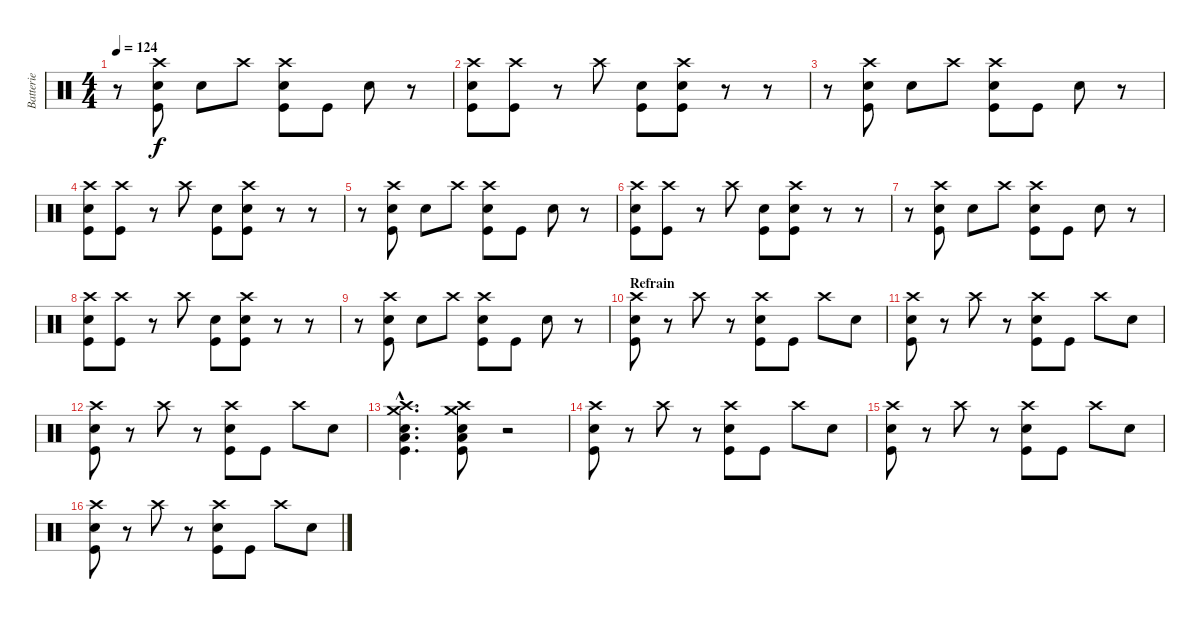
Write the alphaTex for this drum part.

\track ("Batterie" "Batterie") {instrument percussion}
\staff {score}
\articulation defaults
\ts (4 4)
\tempo 124
\clef neutral
\ks c
r.8{dy f} ("Crash high (hit)" "Snare (hit) 2" "Kick (hit)").8 "Snare (hit) 2".8 "Crash high (hit)".8 ("Crash high (hit)" "Snare (hit) 2" "Kick (hit)").8 "Kick (hit)".8 "Snare (hit) 2".8 r.8 |
("Crash high (hit)" "Snare (hit) 2" "Kick (hit)").8 ("Crash high (hit)" "Kick (hit)").8 r.8 "Crash high (hit)".8 ("Snare (hit) 2" "Kick (hit)").8 ("Crash high (hit)" "Snare (hit) 2" "Kick (hit)").8 r.8 r.8 |
r.8 ("Crash high (hit)" "Snare (hit) 2" "Kick (hit)").8 "Snare (hit) 2".8 "Crash high (hit)".8 ("Crash high (hit)" "Snare (hit) 2" "Kick (hit)").8 "Kick (hit)".8 "Snare (hit) 2".8 r.8 |
("Crash high (hit)" "Snare (hit) 2" "Kick (hit)").8 ("Crash high (hit)" "Kick (hit)").8 r.8 "Crash high (hit)".8 ("Snare (hit) 2" "Kick (hit)").8 ("Crash high (hit)" "Snare (hit) 2" "Kick (hit)").8 r.8 r.8 |
r.8 ("Crash high (hit)" "Snare (hit) 2" "Kick (hit)").8 "Snare (hit) 2".8 "Crash high (hit)".8 ("Crash high (hit)" "Snare (hit) 2" "Kick (hit)").8 "Kick (hit)".8 "Snare (hit) 2".8 r.8 |
("Crash high (hit)" "Snare (hit) 2" "Kick (hit)").8 ("Crash high (hit)" "Kick (hit)").8 r.8 "Crash high (hit)".8 ("Snare (hit) 2" "Kick (hit)").8 ("Crash high (hit)" "Snare (hit) 2" "Kick (hit)").8 r.8 r.8 |
r.8 ("Crash high (hit)" "Snare (hit) 2" "Kick (hit)").8 "Snare (hit) 2".8 "Crash high (hit)".8 ("Crash high (hit)" "Snare (hit) 2" "Kick (hit)").8 "Kick (hit)".8 "Snare (hit) 2".8 r.8 |
("Crash high (hit)" "Snare (hit) 2" "Kick (hit)").8 ("Crash high (hit)" "Kick (hit)").8 r.8 "Crash high (hit)".8 ("Snare (hit) 2" "Kick (hit)").8 ("Crash high (hit)" "Snare (hit) 2" "Kick (hit)").8 r.8 r.8 |
r.8 ("Crash high (hit)" "Snare (hit) 2" "Kick (hit)").8 "Snare (hit) 2".8 "Crash high (hit)".8 ("Crash high (hit)" "Snare (hit) 2" "Kick (hit)").8 "Kick (hit)".8 "Snare (hit) 2".8 r.8 |
\section ("" "Refrain")
("Crash high (hit)" "Snare (hit) 2" "Kick (hit)").8 r.8 "Crash high (hit)".8 r.8 ("Crash high (hit)" "Snare (hit) 2" "Kick (hit)").8 "Kick (hit)".8 "Crash high (hit)".8 "Snare (hit) 2".8 |
("Crash high (hit)" "Snare (hit) 2" "Kick (hit)").8 r.8 "Crash high (hit)".8 r.8 ("Crash high (hit)" "Snare (hit) 2" "Kick (hit)").8 "Kick (hit)".8 "Crash high (hit)".8 "Snare (hit) 2".8 |
("Crash high (hit)" "Snare (hit) 2" "Kick (hit)").8 r.8 "Crash high (hit)".8 r.8 ("Crash high (hit)" "Snare (hit) 2" "Kick (hit)").8 "Kick (hit)".8 "Crash high (hit)".8 "Snare (hit) 2".8 |
("Crash high (hit)"{hac} "Crash medium (hit)"{hac} "Snare (hit) 2"{hac} "Low Tom (hit)"{hac} "Kick (hit)"{hac}).4{d} ("Crash high (hit)" "Crash medium (hit)" "Snare (hit) 2" "Low Tom (hit)" "Kick (hit)").8 r.2 |
("Crash high (hit)" "Snare (hit) 2" "Kick (hit)").8 r.8 "Crash high (hit)".8 r.8 ("Crash high (hit)" "Snare (hit) 2" "Kick (hit)").8 "Kick (hit)".8 "Crash high (hit)".8 "Snare (hit) 2".8 |
("Crash high (hit)" "Snare (hit) 2" "Kick (hit)").8 r.8 "Crash high (hit)".8 r.8 ("Crash high (hit)" "Snare (hit) 2" "Kick (hit)").8 "Kick (hit)".8 "Crash high (hit)".8 "Snare (hit) 2".8 |
("Crash high (hit)" "Snare (hit) 2" "Kick (hit)").8 r.8 "Crash high (hit)".8 r.8 ("Crash high (hit)" "Snare (hit) 2" "Kick (hit)").8 "Kick (hit)".8 "Crash high (hit)".8 "Snare (hit) 2".8
